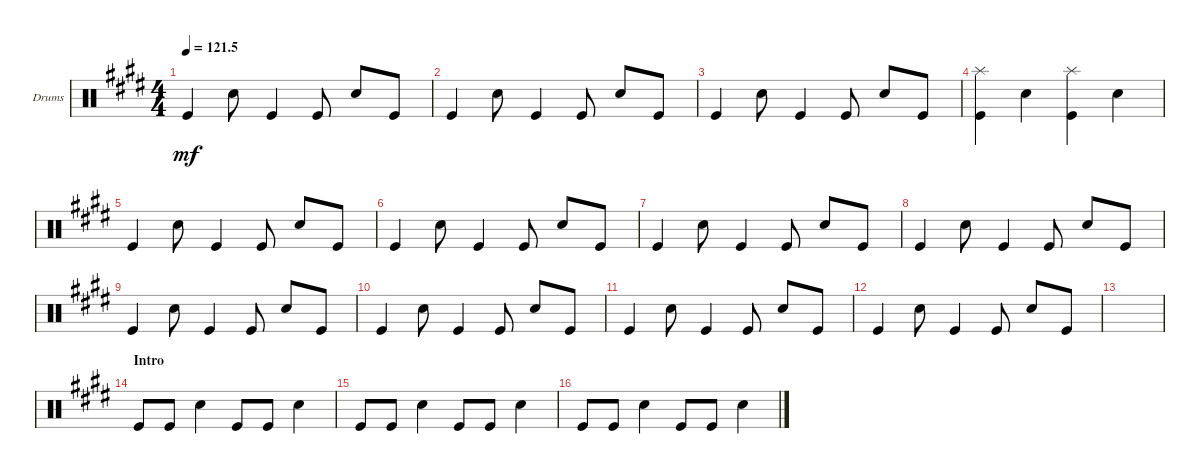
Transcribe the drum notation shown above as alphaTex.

\defaultSystemsLayout 4
\bracketExtendMode groupsimilarinstruments
\firstSystemTrackNameOrientation horizontal
\otherSystemsTrackNameOrientation horizontal
\track ("Drumkit" "Drums") {solo instrument percussion}
\staff {score}
\articulation defaults
\ts (4 4)
\tempo
121.5
\accidentals auto
\clef neutral
\ottava regular
\simile none
\scale
0.333333
\ks e "Kick (hit)".4{dy mf} "Snare (hit) 2".8 "Kick (hit)".4 "Kick (hit)".8 "Snare (hit) 2".8 "Kick (hit)".8
|
\scale
0.333333 "Kick (hit)".4 "Snare (hit) 2".8 "Kick (hit)".4 "Kick (hit)".8 "Snare (hit) 2".8 "Kick (hit)".8 |
\scale
0.333333 "Kick (hit)".4 "Snare (hit) 2".8 "Kick (hit)".4 "Kick (hit)".8 "Snare (hit) 2".8 "Kick (hit)".8 |
\scale
0.333333 ("Kick (hit)" "Splash (hit)").4 "Snare (hit) 2".4 ("Kick (hit)" "Splash (hit)").4 "Snare (hit) 2".4 |
\scale
0.333333 "Kick (hit)".4 "Snare (hit) 2".8 "Kick (hit)".4 "Kick (hit)".8 "Snare (hit) 2".8 "Kick (hit)".8 |
\scale
0.333333 "Kick (hit)".4 "Snare (hit) 2".8 "Kick (hit)".4 "Kick (hit)".8 "Snare (hit) 2".8 "Kick (hit)".8 |
\scale
0.333333 "Kick (hit)".4 "Snare (hit) 2".8 "Kick (hit)".4 "Kick (hit)".8 "Snare (hit) 2".8 "Kick (hit)".8 |
\scale
0.333333 "Kick (hit)".4 "Snare (hit) 2".8 "Kick (hit)".4 "Kick (hit)".8 "Snare (hit) 2".8 "Kick (hit)".8 |
\scale
0.333333 "Kick (hit)".4 "Snare (hit) 2".8 "Kick (hit)".4 "Kick (hit)".8 "Snare (hit) 2".8 "Kick (hit)".8 |
\scale
0.333333 "Kick (hit)".4 "Snare (hit) 2".8 "Kick (hit)".4 "Kick (hit)".8 "Snare (hit) 2".8 "Kick (hit)".8 |
\scale
0.333333 "Kick (hit)".4 "Snare (hit) 2".8 "Kick (hit)".4 "Kick (hit)".8 "Snare (hit) 2".8 "Kick (hit)".8 |
\scale
0.333333 "Kick (hit)".4 "Snare (hit) 2".8 "Kick (hit)".4 "Kick (hit)".8 "Snare (hit) 2".8 "Kick (hit)".8 |
\scale
0.333333 |
\section ("" "Intro")
"Kick (hit)".8 "Kick (hit)".8 "Snare (hit) 2".4 "Kick (hit)".8 "Kick (hit)".8 "Snare (hit) 2".4 |
"Kick (hit)".8 "Kick (hit)".8 "Snare (hit) 2".4 "Kick (hit)".8 "Kick (hit)".8 "Snare (hit) 2".4 |
"Kick (hit)".8 "Kick (hit)".8 "Snare (hit) 2".4 "Kick (hit)".8 "Kick (hit)".8 "Snare (hit) 2".4
